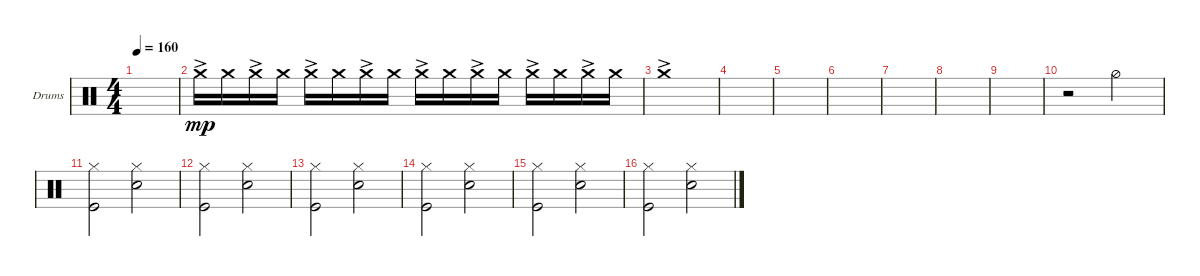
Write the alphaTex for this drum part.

\defaultSystemsLayout 4
\bracketExtendMode groupsimilarinstruments
\firstSystemTrackNameOrientation horizontal
\otherSystemsTrackNameOrientation horizontal
\track ("Drumkit" "Drums") {instrument percussion}
\staff {score}
\articulation defaults
\ts (4 4)
\tempo 160
\clef neutral
\ks c
|
"Crash medium (hit)"{ac}.16{dy mp} "Crash medium (hit)".16 "Crash medium (hit)"{ac}.16 "Crash medium (hit)".16 "Crash medium (hit)"{ac}.16 "Crash medium (hit)".16 "Crash medium (hit)"{ac}.16 "Crash medium (hit)".16 "Crash medium (hit)"{ac}.16 "Crash medium (hit)".16 "Crash medium (hit)"{ac}.16 "Crash medium (hit)".16 "Crash medium (hit)"{ac}.16 "Crash medium (hit)".16 "Crash medium (hit)"{ac}.16 "Crash medium (hit)".16 |
"Crash medium (hit)"{ac}.1 |
|
|
|
|
|
|
r.2 "Hi-Hat (half)".2 |
("Kick (hit)" "Hi-Hat (closed)").2 ("Snare (hit) 2" "Hi-Hat (closed)").2 |
("Kick (hit)" "Hi-Hat (closed)").2 ("Snare (hit) 2" "Hi-Hat (closed)").2 |
("Kick (hit)" "Hi-Hat (closed)").2 ("Snare (hit) 2" "Hi-Hat (closed)").2 |
("Kick (hit)" "Hi-Hat (closed)").2 ("Snare (hit) 2" "Hi-Hat (closed)").2 |
("Kick (hit)" "Hi-Hat (closed)").2 ("Snare (hit) 2" "Hi-Hat (closed)").2 |
("Kick (hit)" "Hi-Hat (closed)").2 ("Snare (hit) 2" "Hi-Hat (closed)").2
